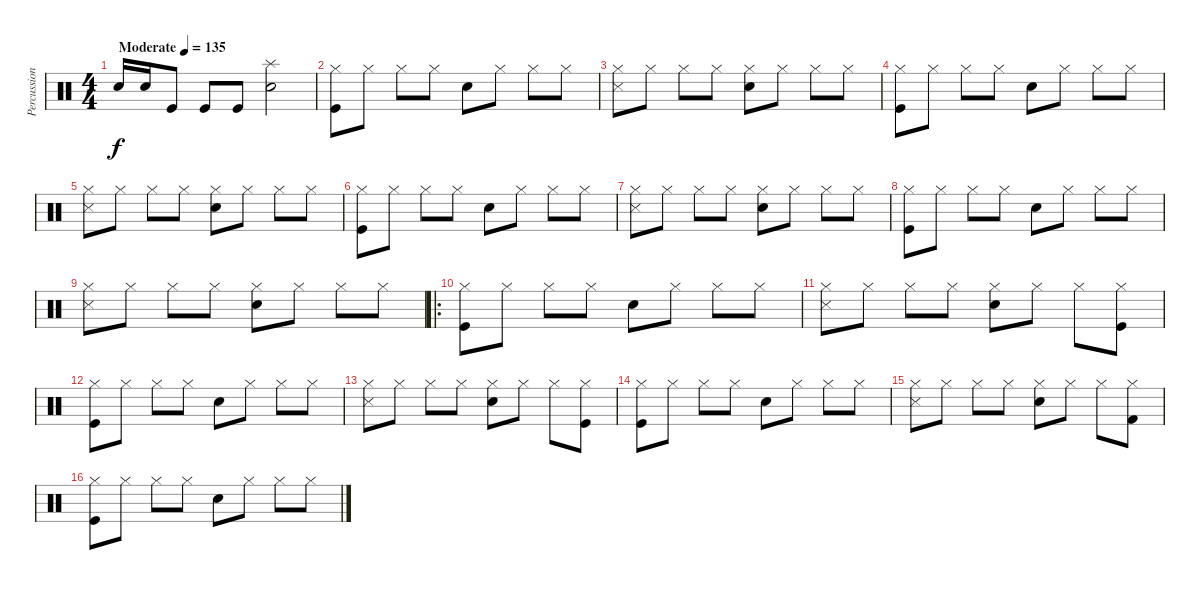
\track ("Percussion" "Percussion") {instrument percussion}
\staff {score}
\articulation defaults
\ts (4 4)
\tempo (135 "Moderate")
\clef neutral
\ks c "Snare (hit) 2".16{dy f} "Snare (hit) 2".16 "Kick (hit)".8 "Kick (hit)".8 "Kick (hit)".8
("Splash (hit)" "Snare (hit) 2").2 |
("Hi-Hat (closed)" "Kick (hit)").8 "Hi-Hat (closed)".8 "Hi-Hat (closed)".8 "Hi-Hat (closed)".8 "Snare (hit) 2".8 "Hi-Hat (closed)".8 "Hi-Hat (closed)".8 "Hi-Hat (closed)".8 |
("Hi-Hat (closed)" "Snare (side stick) 3").8 "Hi-Hat (closed)".8 "Hi-Hat (closed)".8 "Hi-Hat (closed)".8 ("Hi-Hat (closed)" "Snare (hit) 2").8 "Hi-Hat (closed)".8 "Hi-Hat (closed)".8 "Hi-Hat (closed)".8 |
("Hi-Hat (closed)" "Kick (hit)").8 "Hi-Hat (closed)".8 "Hi-Hat (closed)".8 "Hi-Hat (closed)".8 "Snare (hit) 2".8 "Hi-Hat (closed)".8 "Hi-Hat (closed)".8 "Hi-Hat (closed)".8 |
("Hi-Hat (closed)" "Snare (side stick) 3").8 "Hi-Hat (closed)".8 "Hi-Hat (closed)".8 "Hi-Hat (closed)".8 ("Hi-Hat (closed)" "Snare (hit) 2").8 "Hi-Hat (closed)".8 "Hi-Hat (closed)".8 "Hi-Hat (closed)".8 |
("Hi-Hat (closed)" "Kick (hit)").8 "Hi-Hat (closed)".8 "Hi-Hat (closed)".8 "Hi-Hat (closed)".8 "Snare (hit) 2".8 "Hi-Hat (closed)".8 "Hi-Hat (closed)".8 "Hi-Hat (closed)".8 |
("Hi-Hat (closed)" "Snare (side stick) 3").8 "Hi-Hat (closed)".8 "Hi-Hat (closed)".8 "Hi-Hat (closed)".8 ("Hi-Hat (closed)" "Snare (hit) 2").8 "Hi-Hat (closed)".8 "Hi-Hat (closed)".8 "Hi-Hat (closed)".8 |
("Hi-Hat (closed)" "Kick (hit)").8 "Hi-Hat (closed)".8 "Hi-Hat (closed)".8 "Hi-Hat (closed)".8 "Snare (hit) 2".8 "Hi-Hat (closed)".8 "Hi-Hat (closed)".8 "Hi-Hat (closed)".8 |
("Hi-Hat (closed)" "Snare (side stick) 3").8 "Hi-Hat (closed)".8 "Hi-Hat (closed)".8 "Hi-Hat (closed)".8 ("Hi-Hat (closed)" "Snare (hit) 2").8 "Hi-Hat (closed)".8 "Hi-Hat (closed)".8 "Hi-Hat (closed)".8 |
\ro
("Hi-Hat (closed)" "Kick (hit)").8 "Hi-Hat (closed)".8 "Hi-Hat (closed)".8 "Hi-Hat (closed)".8 "Snare (hit) 2".8 "Hi-Hat (closed)".8 "Hi-Hat (closed)".8 "Hi-Hat (closed)".8 |
("Hi-Hat (closed)" "Snare (side stick) 3").8 "Hi-Hat (closed)".8 "Hi-Hat (closed)".8 "Hi-Hat (closed)".8 ("Hi-Hat (closed)" "Snare (hit) 2").8 "Hi-Hat (closed)".8 "Hi-Hat (closed)".8 ("Hi-Hat (closed)" "Kick (hit)").8 |
("Hi-Hat (closed)" "Kick (hit)").8 "Hi-Hat (closed)".8 "Hi-Hat (closed)".8 "Hi-Hat (closed)".8 "Snare (hit) 2".8 "Hi-Hat (closed)".8 "Hi-Hat (closed)".8 "Hi-Hat (closed)".8 |
("Hi-Hat (closed)" "Snare (side stick) 3").8 "Hi-Hat (closed)".8 "Hi-Hat (closed)".8 "Hi-Hat (closed)".8 ("Hi-Hat (closed)" "Snare (hit) 2").8 "Hi-Hat (closed)".8 "Hi-Hat (closed)".8 ("Hi-Hat (closed)" "Kick (hit)").8 |
("Hi-Hat (closed)" "Kick (hit)").8 "Hi-Hat (closed)".8 "Hi-Hat (closed)".8 "Hi-Hat (closed)".8 "Snare (hit) 2".8 "Hi-Hat (closed)".8 "Hi-Hat (closed)".8 "Hi-Hat (closed)".8 |
("Hi-Hat (closed)" "Snare (side stick) 3").8 "Hi-Hat (closed)".8 "Hi-Hat (closed)".8 "Hi-Hat (closed)".8 ("Hi-Hat (closed)" "Snare (hit) 2").8 "Hi-Hat (closed)".8 "Hi-Hat (closed)".8 ("Hi-Hat (closed)" "Kick (hit) 2").8 |
("Hi-Hat (closed)" "Kick (hit)").8 "Hi-Hat (closed)".8 "Hi-Hat (closed)".8 "Hi-Hat (closed)".8 "Snare (hit) 2".8 "Hi-Hat (closed)".8 "Hi-Hat (closed)".8 "Hi-Hat (closed)".8
